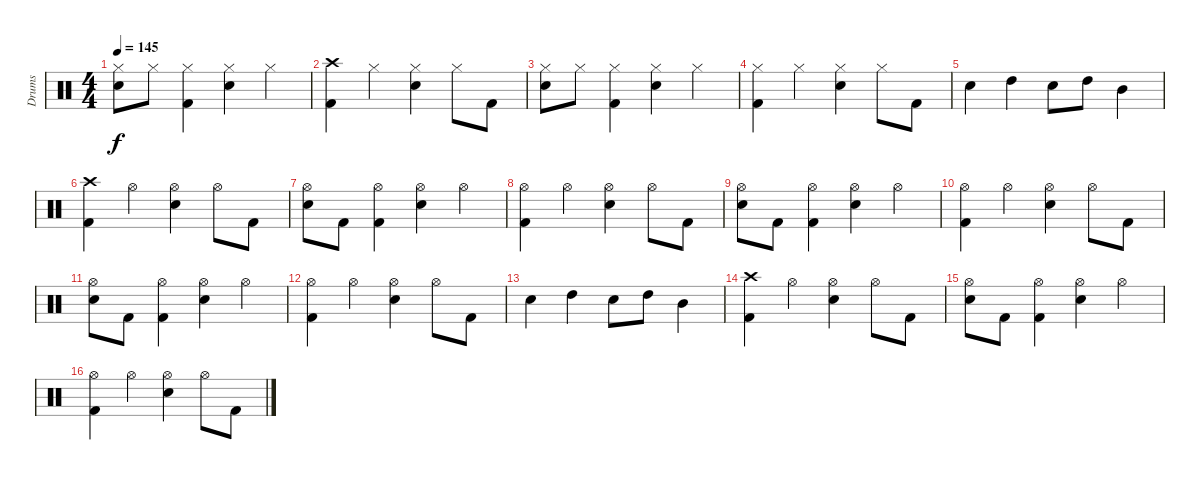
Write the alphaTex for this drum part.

\track ("Drums" "Drums") {instrument percussion}
\staff {score}
\articulation defaults
\ts (4 4)
\tempo 145
\clef neutral
\ks c
("Hi-Hat (closed)" "Snare (hit) 2").8{dy f} "Hi-Hat (closed)".8 ("Hi-Hat (closed)" "Kick (hit) 2").4 ("Hi-Hat (closed)" "Snare (hit) 2").4 "Hi-Hat (closed)".4 |
("Crash high (hit)" "Kick (hit) 2").4 "Hi-Hat (closed)".4 ("Hi-Hat (closed)" "Snare (hit) 2").4 "Hi-Hat (closed)".8 "Kick (hit) 2".8 |
("Hi-Hat (closed)" "Snare (hit) 2").8 "Hi-Hat (closed)".8 ("Hi-Hat (closed)" "Kick (hit) 2").4 ("Hi-Hat (closed)" "Snare (hit) 2").4 "Hi-Hat (closed)".4 |
("Hi-Hat (closed)" "Kick (hit) 2").4 "Hi-Hat (closed)".4 ("Hi-Hat (closed)" "Snare (hit) 2").4 "Hi-Hat (closed)".8 "Kick (hit) 2".8 |
"Snare (hit) 2".4 "High Tom (hit)".4 "Snare (hit) 2".8 "High Tom (hit)".8 "Mid Tom (hit)".4 |
("Crash high (hit)" "Kick (hit) 2").4 "Hi-Hat (open)".4 ("Hi-Hat (open)" "Snare (hit) 2").4 "Hi-Hat (open)".8 "Kick (hit) 2".8 |
("Hi-Hat (open)" "Snare (hit) 2").8 "Kick (hit) 2".8 ("Hi-Hat (open)" "Kick (hit) 2").4 ("Hi-Hat (open)" "Snare (hit) 2").4 "Hi-Hat (open)".4 |
("Hi-Hat (open)" "Kick (hit) 2").4 "Hi-Hat (open)".4 ("Hi-Hat (open)" "Snare (hit) 2").4 "Hi-Hat (open)".8 "Kick (hit) 2".8 |
("Hi-Hat (open)" "Snare (hit) 2").8 "Kick (hit) 2".8 ("Hi-Hat (open)" "Kick (hit) 2").4 ("Hi-Hat (open)" "Snare (hit) 2").4 "Hi-Hat (open)".4 |
("Hi-Hat (open)" "Kick (hit) 2").4 "Hi-Hat (open)".4 ("Hi-Hat (open)" "Snare (hit) 2").4 "Hi-Hat (open)".8 "Kick (hit) 2".8 |
("Hi-Hat (open)" "Snare (hit) 2").8 "Kick (hit) 2".8 ("Hi-Hat (open)" "Kick (hit) 2").4 ("Hi-Hat (open)" "Snare (hit) 2").4 "Hi-Hat (open)".4 |
("Hi-Hat (open)" "Kick (hit) 2").4 "Hi-Hat (open)".4 ("Hi-Hat (open)" "Snare (hit) 2").4 "Hi-Hat (open)".8 "Kick (hit) 2".8 |
"Snare (hit) 2".4 "High Tom (hit)".4 "Snare (hit) 2".8 "High Tom (hit)".8 "Mid Tom (hit)".4 |
("Crash high (hit)" "Kick (hit) 2").4 "Hi-Hat (open)".4 ("Hi-Hat (open)" "Snare (hit) 2").4 "Hi-Hat (open)".8 "Kick (hit) 2".8 |
("Hi-Hat (open)" "Snare (hit) 2").8 "Kick (hit) 2".8 ("Hi-Hat (open)" "Kick (hit) 2").4 ("Hi-Hat (open)" "Snare (hit) 2").4 "Hi-Hat (open)".4 |
("Hi-Hat (open)" "Kick (hit) 2").4 "Hi-Hat (open)".4 ("Hi-Hat (open)" "Snare (hit) 2").4 "Hi-Hat (open)".8 "Kick (hit) 2".8
